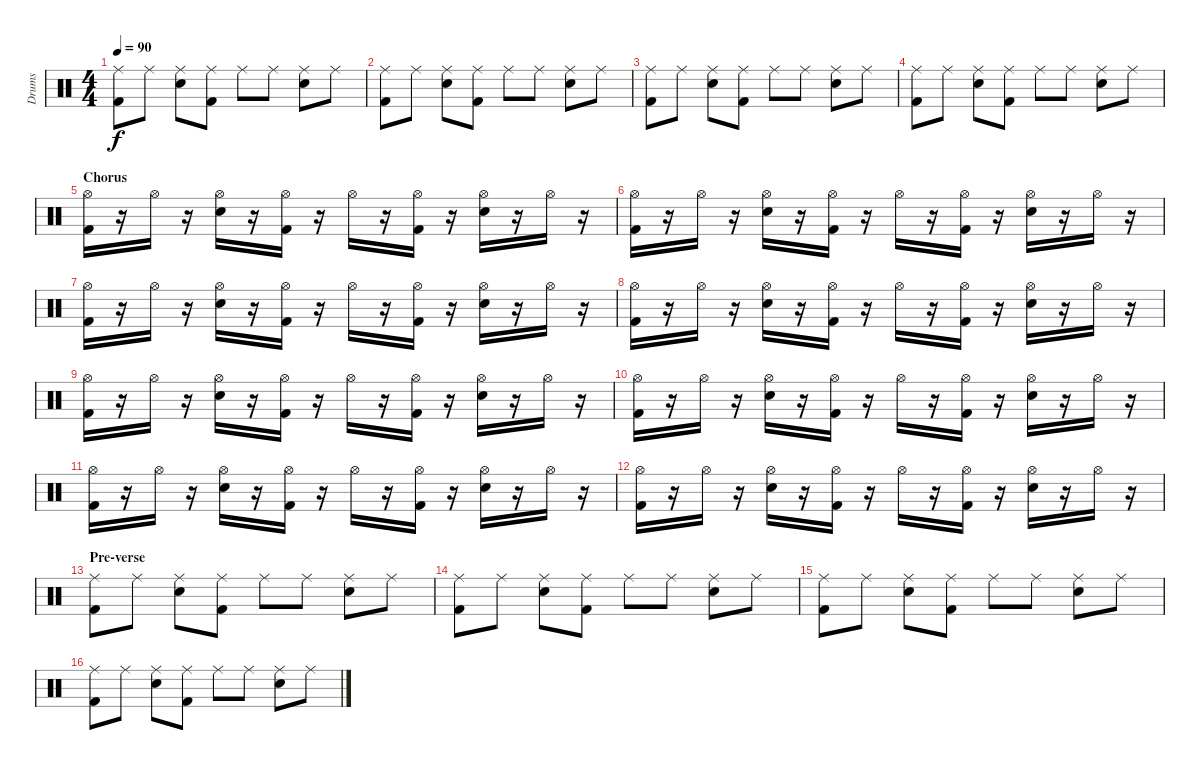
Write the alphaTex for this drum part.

\track ("Drums" "Drums") {instrument percussion}
\staff {score}
\articulation defaults
\ts (4 4)
\tempo 90
\clef neutral
\ks c
("Ride (middle)" "Kick (hit) 2").8{dy f} "Ride (middle)".8 ("Ride (middle)" "Electric Snare (hit)").8 ("Ride (middle)" "Kick (hit) 2").8 "Ride (middle)".8 "Ride (middle)".8 ("Ride (middle)" "Electric Snare (hit)").8 "Ride (middle)".8 |
("Ride (middle)" "Kick (hit) 2").8 "Ride (middle)".8 ("Ride (middle)" "Electric Snare (hit)").8 ("Ride (middle)" "Kick (hit) 2").8 "Ride (middle)".8 "Ride (middle)".8 ("Ride (middle)" "Electric Snare (hit)").8 "Ride (middle)".8 |
("Ride (middle)" "Kick (hit) 2").8 "Ride (middle)".8 ("Ride (middle)" "Electric Snare (hit)").8 ("Ride (middle)" "Kick (hit) 2").8 "Ride (middle)".8 "Ride (middle)".8 ("Ride (middle)" "Electric Snare (hit)").8 "Ride (middle)".8 |
("Ride (middle)" "Kick (hit) 2").8 "Ride (middle)".8 ("Ride (middle)" "Electric Snare (hit)").8 ("Ride (middle)" "Kick (hit) 2").8 "Ride (middle)".8 "Ride (middle)".8 ("Ride (middle)" "Electric Snare (hit)").8 "Ride (middle)".8 |
\section ("" "Chorus")
("Hi-Hat (open)" "Kick (hit) 2").16 r.16 "Hi-Hat (open)".16 r.16 ("Hi-Hat (open)" "Electric Snare (hit)").16 r.16 ("Hi-Hat (open)" "Kick (hit) 2").16 r.16 "Hi-Hat (open)".16 r.16 ("Hi-Hat (open)" "Kick (hit) 2").16 r.16 ("Hi-Hat (open)" "Electric Snare (hit)").16 r.16 "Hi-Hat (open)".16 r.16 |
("Hi-Hat (open)" "Kick (hit) 2").16 r.16 "Hi-Hat (open)".16 r.16 ("Hi-Hat (open)" "Electric Snare (hit)").16 r.16 ("Hi-Hat (open)" "Kick (hit) 2").16 r.16 "Hi-Hat (open)".16 r.16 ("Hi-Hat (open)" "Kick (hit) 2").16 r.16 ("Hi-Hat (open)" "Electric Snare (hit)").16 r.16 "Hi-Hat (open)".16 r.16 |
("Hi-Hat (open)" "Kick (hit) 2").16 r.16 "Hi-Hat (open)".16 r.16 ("Hi-Hat (open)" "Electric Snare (hit)").16 r.16 ("Hi-Hat (open)" "Kick (hit) 2").16 r.16 "Hi-Hat (open)".16 r.16 ("Hi-Hat (open)" "Kick (hit) 2").16 r.16 ("Hi-Hat (open)" "Electric Snare (hit)").16 r.16 "Hi-Hat (open)".16 r.16 |
("Hi-Hat (open)" "Kick (hit) 2").16 r.16 "Hi-Hat (open)".16 r.16 ("Hi-Hat (open)" "Electric Snare (hit)").16 r.16 ("Hi-Hat (open)" "Kick (hit) 2").16 r.16 "Hi-Hat (open)".16 r.16 ("Hi-Hat (open)" "Kick (hit) 2").16 r.16 ("Hi-Hat (open)" "Electric Snare (hit)").16 r.16 "Hi-Hat (open)".16 r.16 |
("Hi-Hat (open)" "Kick (hit) 2").16 r.16 "Hi-Hat (open)".16 r.16 ("Hi-Hat (open)" "Electric Snare (hit)").16 r.16 ("Hi-Hat (open)" "Kick (hit) 2").16 r.16 "Hi-Hat (open)".16 r.16 ("Hi-Hat (open)" "Kick (hit) 2").16 r.16 ("Hi-Hat (open)" "Electric Snare (hit)").16 r.16 "Hi-Hat (open)".16 r.16 |
("Hi-Hat (open)" "Kick (hit) 2").16 r.16 "Hi-Hat (open)".16 r.16 ("Hi-Hat (open)" "Electric Snare (hit)").16 r.16 ("Hi-Hat (open)" "Kick (hit) 2").16 r.16 "Hi-Hat (open)".16 r.16 ("Hi-Hat (open)" "Kick (hit) 2").16 r.16 ("Hi-Hat (open)" "Electric Snare (hit)").16 r.16 "Hi-Hat (open)".16 r.16 |
("Hi-Hat (open)" "Kick (hit) 2").16 r.16 "Hi-Hat (open)".16 r.16 ("Hi-Hat (open)" "Electric Snare (hit)").16 r.16 ("Hi-Hat (open)" "Kick (hit) 2").16 r.16 "Hi-Hat (open)".16 r.16 ("Hi-Hat (open)" "Kick (hit) 2").16 r.16 ("Hi-Hat (open)" "Electric Snare (hit)").16 r.16 "Hi-Hat (open)".16 r.16 |
("Hi-Hat (open)" "Kick (hit) 2").16 r.16 "Hi-Hat (open)".16 r.16 ("Hi-Hat (open)" "Electric Snare (hit)").16 r.16 ("Hi-Hat (open)" "Kick (hit) 2").16 r.16 "Hi-Hat (open)".16 r.16 ("Hi-Hat (open)" "Kick (hit) 2").16 r.16 ("Hi-Hat (open)" "Electric Snare (hit)").16 r.16 "Hi-Hat (open)".16 r.16 |
\section ("" "Pre-verse")
("Ride (middle)" "Kick (hit) 2").8 "Ride (middle)".8 ("Ride (middle)" "Electric Snare (hit)").8 ("Ride (middle)" "Kick (hit) 2").8 "Ride (middle)".8 "Ride (middle)".8 ("Ride (middle)" "Electric Snare (hit)").8 "Ride (middle)".8 |
("Ride (middle)" "Kick (hit) 2").8 "Ride (middle)".8 ("Ride (middle)" "Electric Snare (hit)").8 ("Ride (middle)" "Kick (hit) 2").8 "Ride (middle)".8 "Ride (middle)".8 ("Ride (middle)" "Electric Snare (hit)").8 "Ride (middle)".8 |
("Ride (middle)" "Kick (hit) 2").8 "Ride (middle)".8 ("Ride (middle)" "Electric Snare (hit)").8 ("Ride (middle)" "Kick (hit) 2").8 "Ride (middle)".8 "Ride (middle)".8 ("Ride (middle)" "Electric Snare (hit)").8 "Ride (middle)".8 |
("Ride (middle)" "Kick (hit) 2").8 "Ride (middle)".8 ("Ride (middle)" "Electric Snare (hit)").8 ("Ride (middle)" "Kick (hit) 2").8 "Ride (middle)".8 "Ride (middle)".8 ("Ride (middle)" "Electric Snare (hit)").8 "Ride (middle)".8
